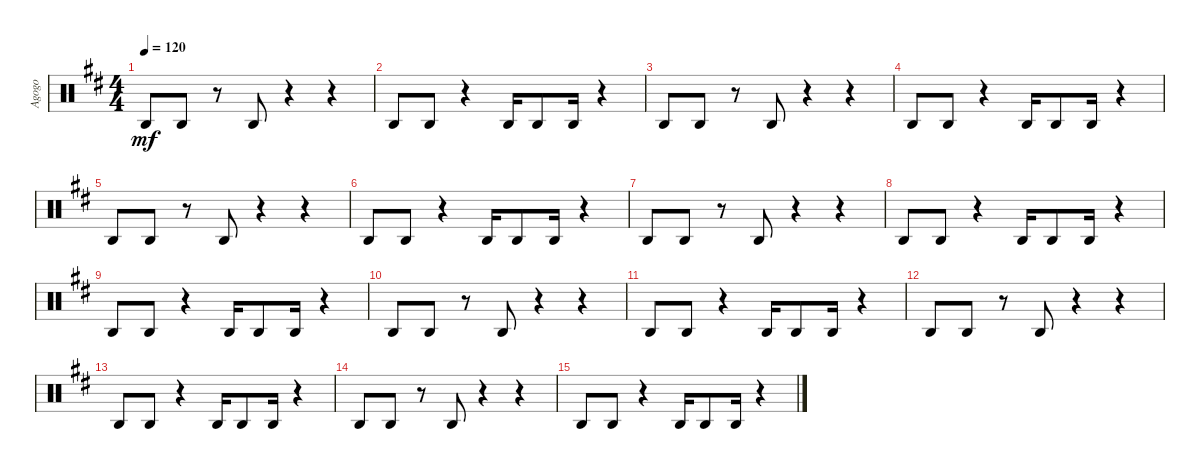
\track ("Agogo" "Agogo") {instrument percussion}
\staff {score}
\articulation defaults
\ts (4 4)
\tempo 120
\clef neutral
\ks d "Agogo high (hit)".8{dy mf} "Agogo high (hit)".8
r.8 "Agogo high (hit)".8 r.4 r.4 |
"Agogo high (hit)".8 "Agogo high (hit)".8 r.4 "Agogo high (hit)".16 "Agogo high (hit)".8 "Agogo high (hit)".16 r.4 |
"Agogo high (hit)".8 "Agogo high (hit)".8 r.8 "Agogo high (hit)".8 r.4 r.4 |
"Agogo high (hit)".8 "Agogo high (hit)".8 r.4 "Agogo high (hit)".16 "Agogo high (hit)".8 "Agogo high (hit)".16 r.4 |
"Agogo high (hit)".8 "Agogo high (hit)".8 r.8 "Agogo high (hit)".8 r.4 r.4 |
"Agogo high (hit)".8 "Agogo high (hit)".8 r.4 "Agogo high (hit)".16 "Agogo high (hit)".8 "Agogo high (hit)".16 r.4 |
"Agogo high (hit)".8 "Agogo high (hit)".8 r.8 "Agogo high (hit)".8 r.4 r.4 |
"Agogo high (hit)".8 "Agogo high (hit)".8 r.4 "Agogo high (hit)".16 "Agogo high (hit)".8 "Agogo high (hit)".16 r.4 |
"Agogo high (hit)".8 "Agogo high (hit)".8 r.4 "Agogo high (hit)".16 "Agogo high (hit)".8 "Agogo high (hit)".16 r.4 |
"Agogo high (hit)".8 "Agogo high (hit)".8 r.8 "Agogo high (hit)".8 r.4 r.4 |
"Agogo high (hit)".8 "Agogo high (hit)".8 r.4 "Agogo high (hit)".16 "Agogo high (hit)".8 "Agogo high (hit)".16 r.4 |
"Agogo high (hit)".8 "Agogo high (hit)".8 r.8 "Agogo high (hit)".8 r.4 r.4 |
"Agogo high (hit)".8 "Agogo high (hit)".8 r.4 "Agogo high (hit)".16 "Agogo high (hit)".8 "Agogo high (hit)".16 r.4 |
"Agogo high (hit)".8 "Agogo high (hit)".8 r.8 "Agogo high (hit)".8 r.4 r.4 |
"Agogo high (hit)".8 "Agogo high (hit)".8 r.4 "Agogo high (hit)".16 "Agogo high (hit)".8 "Agogo high (hit)".16 r.4
